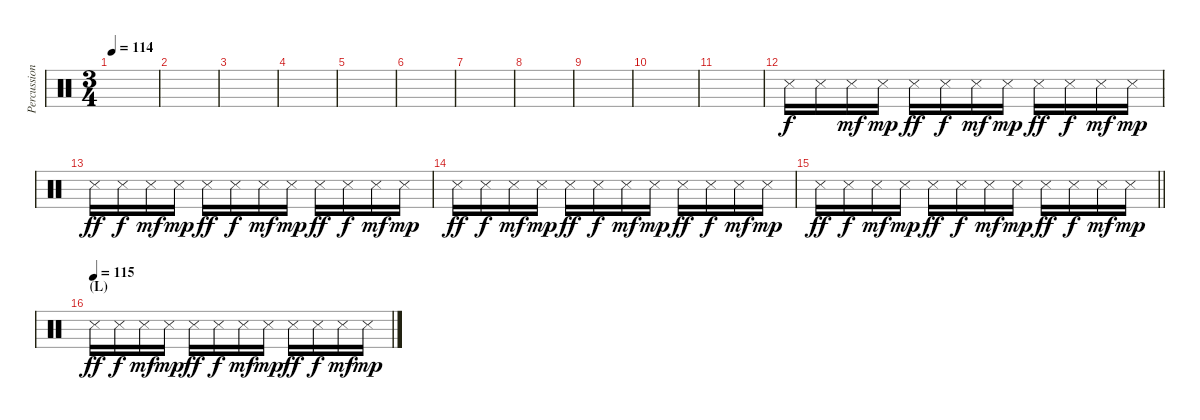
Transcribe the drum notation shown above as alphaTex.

\track ("Percussion 1" "Percussion") {instrument percussion}
\staff {score}
\articulation defaults
\ts (3 4)
\tempo 114
\clef neutral
\ks c
|
|
|
|
|
|
|
|
|
|
|
"Snare (side stick) 3".16{volume 12} "Snare (side stick) 3".16{dy f} "Snare (side stick) 3".16{dy mf} "Snare (side stick) 3".16{dy mp} "Snare (side stick) 3".16{dy ff} "Snare (side stick) 3".16{dy f} "Snare (side stick) 3".16{dy mf} "Snare (side stick) 3".16{dy mp} "Snare (side stick) 3".16{dy ff} "Snare (side stick) 3".16{dy f} "Snare (side stick) 3".16{dy mf} "Snare (side stick) 3".16{dy mp} |
"Snare (side stick) 3".16{dy ff} "Snare (side stick) 3".16{dy f} "Snare (side stick) 3".16{dy mf} "Snare (side stick) 3".16{dy mp} "Snare (side stick) 3".16{dy ff} "Snare (side stick) 3".16{dy f} "Snare (side stick) 3".16{dy mf} "Snare (side stick) 3".16{dy mp} "Snare (side stick) 3".16{dy ff} "Snare (side stick) 3".16{dy f} "Snare (side stick) 3".16{dy mf} "Snare (side stick) 3".16{dy mp} |
"Snare (side stick) 3".16{dy ff} "Snare (side stick) 3".16{dy f} "Snare (side stick) 3".16{dy mf} "Snare (side stick) 3".16{dy mp} "Snare (side stick) 3".16{dy ff} "Snare (side stick) 3".16{dy f} "Snare (side stick) 3".16{dy mf} "Snare (side stick) 3".16{dy mp} "Snare (side stick) 3".16{dy ff} "Snare (side stick) 3".16{dy f} "Snare (side stick) 3".16{dy mf} "Snare (side stick) 3".16{dy mp} |
\barLineRight lightlight "Snare (side stick) 3".16{dy ff} "Snare (side stick) 3".16{dy f} "Snare (side stick) 3".16{dy mf} "Snare (side stick) 3".16{dy mp} "Snare (side stick) 3".16{dy ff} "Snare (side stick) 3".16{dy f} "Snare (side stick) 3".16{dy mf} "Snare (side stick) 3".16{dy mp} "Snare (side stick) 3".16{dy ff} "Snare (side stick) 3".16{dy f} "Snare (side stick) 3".16{dy mf} "Snare (side stick) 3".16{dy mp}
|
\section ("" "(L)")
\tempo (115)
"Snare (side stick) 3".16{dy ff} "Snare (side stick) 3".16{dy f} "Snare (side stick) 3".16{dy mf} "Snare (side stick) 3".16{dy mp} "Snare (side stick) 3".16{dy ff} "Snare (side stick) 3".16{dy f} "Snare (side stick) 3".16{dy mf} "Snare (side stick) 3".16{dy mp} "Snare (side stick) 3".16{dy ff} "Snare (side stick) 3".16{dy f} "Snare (side stick) 3".16{dy mf} "Snare (side stick) 3".16{dy mp}
